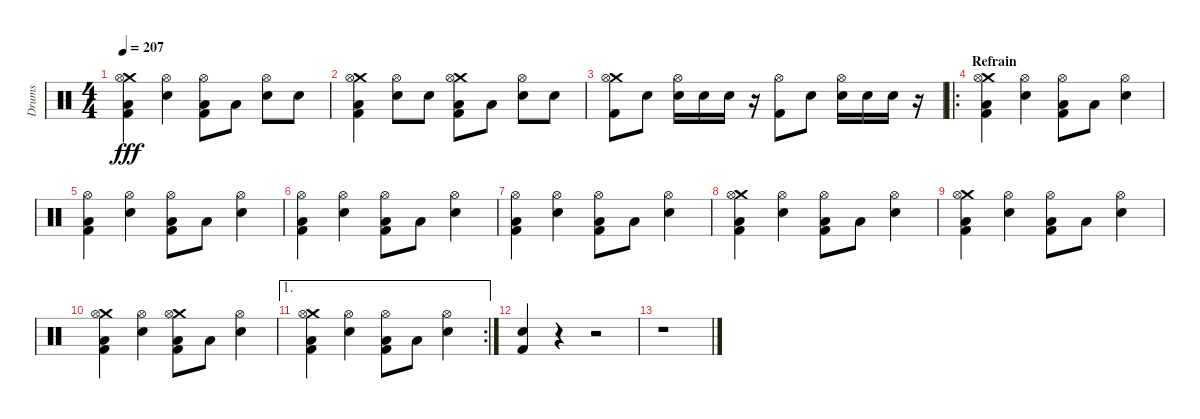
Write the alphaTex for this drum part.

\track ("Drums" "Drums") {instrument percussion}
\staff {score}
\articulation defaults
\ts (4 4)
\tempo 207
\clef neutral
\ks c
("Crash medium (hit)" "Hi-Hat (open)" "Low Floor Tom (hit)" "Kick (hit) 2").4{dy fff} ("Hi-Hat (open)" "Snare (hit) 2").4 ("Hi-Hat (open)" "Low Floor Tom (hit)" "Kick (hit) 2").8 "Low Floor Tom (hit)".8 ("Hi-Hat (open)" "Snare (hit) 2").8 "Snare (hit) 2".8 |
("Crash medium (hit)" "Hi-Hat (open)" "Low Floor Tom (hit)" "Kick (hit) 2").4 ("Hi-Hat (open)" "Snare (hit) 2").8 "Snare (hit) 2".8 ("Crash medium (hit)" "Hi-Hat (open)" "Low Floor Tom (hit)" "Kick (hit) 2").8 "Low Floor Tom (hit)".8 ("Hi-Hat (open)" "Snare (hit) 2").8 "Snare (hit) 2".8 |
("Crash medium (hit)" "Hi-Hat (open)" "Kick (hit) 2").8 "Snare (hit) 2".8 ("Hi-Hat (open)" "Snare (hit) 2").16 "Snare (hit) 2".16 "Snare (hit) 2".16 r.16 ("Hi-Hat (open)" "Kick (hit) 2").8 "Snare (hit) 2".8 ("Hi-Hat (open)" "Snare (hit) 2").16 "Snare (hit) 2".16 "Snare (hit) 2".16 r.16 |
\ro
\section ("" "Refrain")
("Crash medium (hit)" "Hi-Hat (open)" "Low Floor Tom (hit)" "Kick (hit) 2").4 ("Hi-Hat (open)" "Snare (hit) 2").4 ("Hi-Hat (open)" "Low Floor Tom (hit)" "Kick (hit) 2").8 "Low Floor Tom (hit)".8 ("Hi-Hat (open)" "Snare (hit) 2").4 |
("Hi-Hat (open)" "Low Floor Tom (hit)" "Kick (hit) 2").4 ("Hi-Hat (open)" "Snare (hit) 2").4 ("Hi-Hat (open)" "Low Floor Tom (hit)" "Kick (hit) 2").8 "Low Floor Tom (hit)".8 ("Hi-Hat (open)" "Snare (hit) 2").4 |
("Hi-Hat (open)" "Low Floor Tom (hit)" "Kick (hit) 2").4 ("Hi-Hat (open)" "Snare (hit) 2").4 ("Hi-Hat (open)" "Low Floor Tom (hit)" "Kick (hit) 2").8 "Low Floor Tom (hit)".8 ("Hi-Hat (open)" "Snare (hit) 2").4 |
("Hi-Hat (open)" "Low Floor Tom (hit)" "Kick (hit) 2").4 ("Hi-Hat (open)" "Snare (hit) 2").4 ("Hi-Hat (open)" "Low Floor Tom (hit)" "Kick (hit) 2").8 "Low Floor Tom (hit)".8 ("Hi-Hat (open)" "Snare (hit) 2").4 |
("Crash medium (hit)" "Hi-Hat (open)" "Low Floor Tom (hit)" "Kick (hit) 2").4 ("Hi-Hat (open)" "Snare (hit) 2").4 ("Hi-Hat (open)" "Low Floor Tom (hit)" "Kick (hit) 2").8 "Low Floor Tom (hit)".8 ("Hi-Hat (open)" "Snare (hit) 2").4 |
("Crash medium (hit)" "Hi-Hat (open)" "Low Floor Tom (hit)" "Kick (hit) 2").4 ("Hi-Hat (open)" "Snare (hit) 2").4 ("Hi-Hat (open)" "Low Floor Tom (hit)" "Kick (hit) 2").8 "Low Floor Tom (hit)".8 ("Hi-Hat (open)" "Snare (hit) 2").4 |
("Crash medium (hit)" "Hi-Hat (open)" "Low Floor Tom (hit)" "Kick (hit) 2").4 ("Hi-Hat (open)" "Snare (hit) 2").4 ("Crash medium (hit)" "Hi-Hat (open)" "Low Floor Tom (hit)" "Kick (hit) 2").8 "Low Floor Tom (hit)".8 ("Hi-Hat (open)" "Snare (hit) 2").4 |
\ae 1
\rc 2
("Crash medium (hit)" "Hi-Hat (open)" "Low Floor Tom (hit)" "Kick (hit) 2").4 ("Hi-Hat (open)" "Snare (hit) 2").4 ("Hi-Hat (open)" "Low Floor Tom (hit)" "Kick (hit) 2").8 "Low Floor Tom (hit)".8 ("Hi-Hat (open)" "Snare (hit) 2").4 |
("Snare (hit) 2" "Kick (hit) 2").4 r.4 r.2 |
r.1
